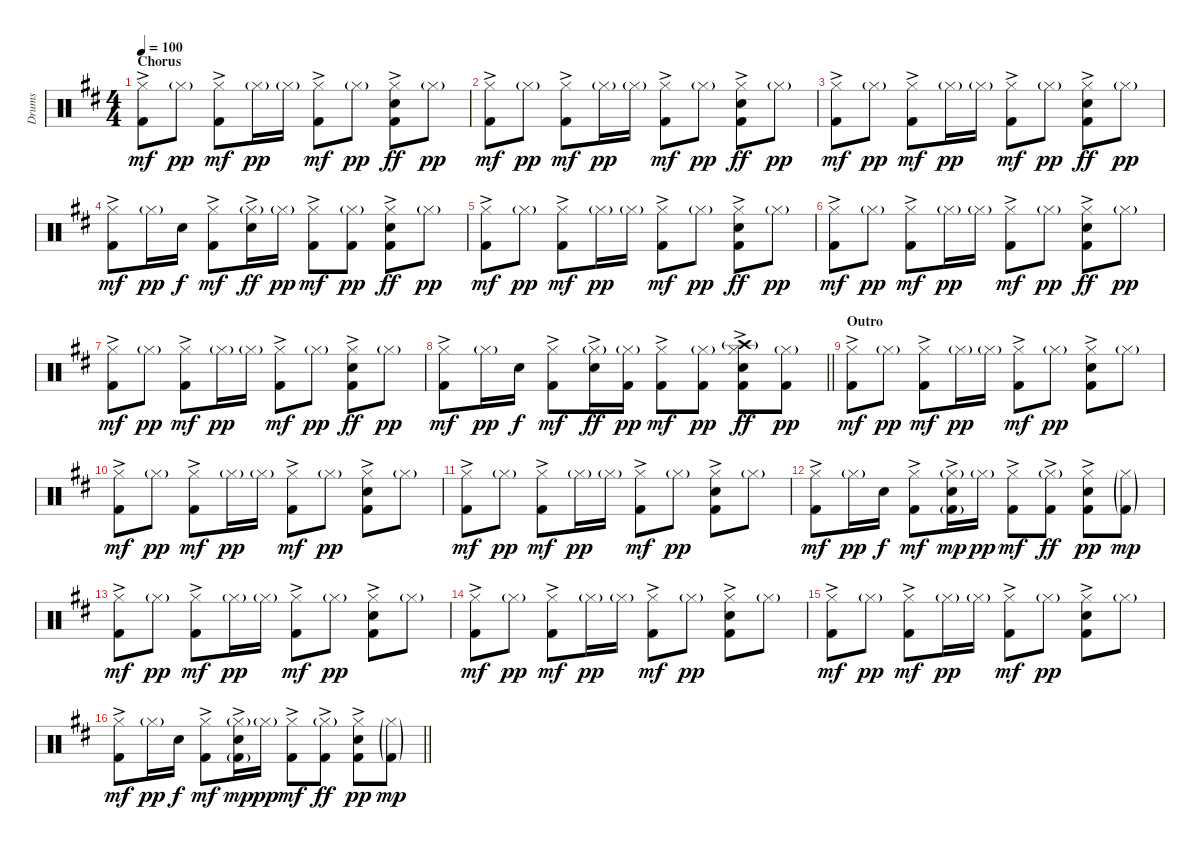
\track ("Drums" "Drums") {instrument percussion}
\staff {score}
\articulation defaults
\ts (4 4)
\section ("" "Chorus")
\tempo 100
\clef neutral
\ks d
("Hi-Hat (closed)" "Kick (hit) 2"{ac}).8{dy mf} "Hi-Hat (closed)"{g}.8{dy pp} ("Hi-Hat (closed)"{ac} "Kick (hit) 2"{ac}).8{dy mf} "Hi-Hat (closed)"{g}.16{dy pp} "Hi-Hat (closed)"{g}.16 ("Hi-Hat (closed)" "Kick (hit) 2"{ac}).8{dy mf} "Hi-Hat (closed)"{g}.8{dy pp} ("Hi-Hat (closed)"{ac} "Snare (hit) 2"{ac} "Kick (hit) 2"{ac}).8{dy ff} "Hi-Hat (closed)"{g}.8{dy pp} |
("Hi-Hat (closed)" "Kick (hit) 2"{ac}).8{dy mf} "Hi-Hat (closed)"{g}.8{dy pp} ("Hi-Hat (closed)"{ac} "Kick (hit) 2"{ac}).8{dy mf} "Hi-Hat (closed)"{g}.16{dy pp} "Hi-Hat (closed)"{g}.16 ("Hi-Hat (closed)" "Kick (hit) 2"{ac}).8{dy mf} "Hi-Hat (closed)"{g}.8{dy pp} ("Hi-Hat (closed)"{ac} "Snare (hit) 2"{ac} "Kick (hit) 2"{ac}).8{dy ff} "Hi-Hat (closed)"{g}.8{dy pp} |
("Hi-Hat (closed)" "Kick (hit) 2"{ac}).8{dy mf} "Hi-Hat (closed)"{g}.8{dy pp} ("Hi-Hat (closed)"{ac} "Kick (hit) 2"{ac}).8{dy mf} "Hi-Hat (closed)"{g}.16{dy pp} "Hi-Hat (closed)"{g}.16 ("Hi-Hat (closed)" "Kick (hit) 2"{ac}).8{dy mf} "Hi-Hat (closed)"{g}.8{dy pp} ("Hi-Hat (closed)"{ac} "Snare (hit) 2"{ac} "Kick (hit) 2"{ac}).8{dy ff} "Hi-Hat (closed)"{g}.8{dy pp} |
("Hi-Hat (closed)" "Kick (hit) 2"{ac}).8{dy mf} "Hi-Hat (closed)"{g}.16{dy pp} "Snare (hit) 2".16{dy f} ("Hi-Hat (closed)"{ac} "Kick (hit) 2"{ac}).8{dy mf} ("Hi-Hat (closed)"{g} "Snare (hit) 2"{ac}).16{dy ff} "Hi-Hat (closed)"{g}.16{dy pp} ("Hi-Hat (closed)" "Kick (hit) 2"{ac}).8{dy mf} ("Hi-Hat (closed)"{g} "Kick (hit) 2").8{dy pp} ("Hi-Hat (closed)"{ac} "Snare (hit) 2"{ac} "Kick (hit) 2"{ac}).8{dy ff} "Hi-Hat (closed)"{g}.8{dy pp} |
("Hi-Hat (closed)" "Kick (hit) 2"{ac}).8{dy mf} "Hi-Hat (closed)"{g}.8{dy pp} ("Hi-Hat (closed)"{ac} "Kick (hit) 2"{ac}).8{dy mf} "Hi-Hat (closed)"{g}.16{dy pp} "Hi-Hat (closed)"{g}.16 ("Hi-Hat (closed)" "Kick (hit) 2"{ac}).8{dy mf} "Hi-Hat (closed)"{g}.8{dy pp} ("Hi-Hat (closed)"{ac} "Snare (hit) 2"{ac} "Kick (hit) 2"{ac}).8{dy ff} "Hi-Hat (closed)"{g}.8{dy pp} |
("Hi-Hat (closed)" "Kick (hit) 2"{ac}).8{dy mf} "Hi-Hat (closed)"{g}.8{dy pp} ("Hi-Hat (closed)"{ac} "Kick (hit) 2"{ac}).8{dy mf} "Hi-Hat (closed)"{g}.16{dy pp} "Hi-Hat (closed)"{g}.16 ("Hi-Hat (closed)" "Kick (hit) 2"{ac}).8{dy mf} "Hi-Hat (closed)"{g}.8{dy pp} ("Hi-Hat (closed)"{ac} "Snare (hit) 2"{ac} "Kick (hit) 2"{ac}).8{dy ff} "Hi-Hat (closed)"{g}.8{dy pp} |
("Hi-Hat (closed)" "Kick (hit) 2"{ac}).8{dy mf} "Hi-Hat (closed)"{g}.8{dy pp} ("Hi-Hat (closed)"{ac} "Kick (hit) 2"{ac}).8{dy mf} "Hi-Hat (closed)"{g}.16{dy pp} "Hi-Hat (closed)"{g}.16 ("Hi-Hat (closed)" "Kick (hit) 2"{ac}).8{dy mf} "Hi-Hat (closed)"{g}.8{dy pp} ("Hi-Hat (closed)"{ac} "Snare (hit) 2"{ac} "Kick (hit) 2"{ac}).8{dy ff} "Hi-Hat (closed)"{g}.8{dy pp} |
\barLineRight lightlight
("Hi-Hat (closed)" "Kick (hit) 2"{ac}).8{dy mf} "Hi-Hat (closed)"{g}.16{dy pp} "Snare (hit) 2".16{dy f} ("Hi-Hat (closed)"{ac} "Kick (hit) 2"{ac}).8{dy mf} ("Hi-Hat (closed)"{g} "Snare (hit) 2"{ac}).16{dy ff} ("Hi-Hat (closed)"{g} "Kick (hit) 2").16{dy pp} ("Hi-Hat (closed)" "Kick (hit) 2"{ac}).8{dy mf} ("Hi-Hat (closed)"{g} "Kick (hit) 2").8{dy pp} ("Hi-Hat (closed)"{ac} "Crash high (hit)"{g} "Snare (hit) 2"{ac} "Kick (hit) 2"{ac}).8{dy ff} ("Hi-Hat (closed)"{g} "Kick (hit) 2").8{dy pp} |
\section ("" "Outro")
("Hi-Hat (closed)" "Kick (hit) 2"{ac}).8{dy mf} "Hi-Hat (closed)"{g}.8{dy pp} ("Hi-Hat (closed)"{ac} "Kick (hit) 2"{ac}).8{dy mf} "Hi-Hat (closed)"{g}.16{dy pp} "Hi-Hat (closed)"{g}.16 ("Hi-Hat (closed)" "Kick (hit) 2"{ac}).8{dy mf} "Hi-Hat (closed)"{g}.8{dy pp} ("Hi-Hat (closed)"{ac} "Snare (hit) 2"{ac} "Kick (hit) 2").8 "Hi-Hat (closed)"{g}.8 |
("Hi-Hat (closed)" "Kick (hit) 2"{ac}).8{dy mf} "Hi-Hat (closed)"{g}.8{dy pp} ("Hi-Hat (closed)"{ac} "Kick (hit) 2"{ac}).8{dy mf} "Hi-Hat (closed)"{g}.16{dy pp} "Hi-Hat (closed)"{g}.16 ("Hi-Hat (closed)" "Kick (hit) 2"{ac}).8{dy mf} "Hi-Hat (closed)"{g}.8{dy pp} ("Hi-Hat (closed)"{ac} "Snare (hit) 2"{ac} "Kick (hit) 2").8 "Hi-Hat (closed)"{g}.8 |
("Hi-Hat (closed)" "Kick (hit) 2"{ac}).8{dy mf} "Hi-Hat (closed)"{g}.8{dy pp} ("Hi-Hat (closed)"{ac} "Kick (hit) 2"{ac}).8{dy mf} "Hi-Hat (closed)"{g}.16{dy pp} "Hi-Hat (closed)"{g}.16 ("Hi-Hat (closed)" "Kick (hit) 2"{ac}).8{dy mf} "Hi-Hat (closed)"{g}.8{dy pp} ("Hi-Hat (closed)"{ac} "Snare (hit) 2"{ac} "Kick (hit) 2").8 "Hi-Hat (closed)"{g}.8 |
("Hi-Hat (closed)" "Kick (hit) 2"{ac}).8{dy mf} "Hi-Hat (closed)"{g}.16{dy pp} "Snare (hit) 2".16{dy f} ("Hi-Hat (closed)"{ac} "Kick (hit) 2"{ac}).8{dy mf} ("Hi-Hat (closed)"{g} "Snare (hit) 2"{ac} "Kick (hit) 2"{g}).16{dy mp} "Hi-Hat (closed)"{g}.16{dy pp} ("Hi-Hat (closed)" "Kick (hit) 2"{ac}).8{dy mf} ("Hi-Hat (closed)"{g} "Kick (hit) 2"{ac}).8{dy ff} ("Hi-Hat (closed)"{ac} "Snare (hit) 2"{ac} "Kick (hit) 2").8{dy pp} ("Hi-Hat (closed)"{g} "Kick (hit) 2"{g}).8{dy mp} |
("Hi-Hat (closed)" "Kick (hit) 2"{ac}).8{dy mf} "Hi-Hat (closed)"{g}.8{dy pp} ("Hi-Hat (closed)"{ac} "Kick (hit) 2"{ac}).8{dy mf} "Hi-Hat (closed)"{g}.16{dy pp} "Hi-Hat (closed)"{g}.16 ("Hi-Hat (closed)" "Kick (hit) 2"{ac}).8{dy mf} "Hi-Hat (closed)"{g}.8{dy pp} ("Hi-Hat (closed)"{ac} "Snare (hit) 2"{ac} "Kick (hit) 2").8 "Hi-Hat (closed)"{g}.8 |
("Hi-Hat (closed)" "Kick (hit) 2"{ac}).8{dy mf} "Hi-Hat (closed)"{g}.8{dy pp} ("Hi-Hat (closed)"{ac} "Kick (hit) 2"{ac}).8{dy mf} "Hi-Hat (closed)"{g}.16{dy pp} "Hi-Hat (closed)"{g}.16 ("Hi-Hat (closed)" "Kick (hit) 2"{ac}).8{dy mf} "Hi-Hat (closed)"{g}.8{dy pp} ("Hi-Hat (closed)"{ac} "Snare (hit) 2"{ac} "Kick (hit) 2").8 "Hi-Hat (closed)"{g}.8 |
("Hi-Hat (closed)" "Kick (hit) 2"{ac}).8{dy mf} "Hi-Hat (closed)"{g}.8{dy pp} ("Hi-Hat (closed)"{ac} "Kick (hit) 2"{ac}).8{dy mf} "Hi-Hat (closed)"{g}.16{dy pp} "Hi-Hat (closed)"{g}.16 ("Hi-Hat (closed)" "Kick (hit) 2"{ac}).8{dy mf} "Hi-Hat (closed)"{g}.8{dy pp} ("Hi-Hat (closed)"{ac} "Snare (hit) 2"{ac} "Kick (hit) 2").8 "Hi-Hat (closed)"{g}.8 |
\barLineRight lightlight
("Hi-Hat (closed)" "Kick (hit) 2"{ac}).8{dy mf} "Hi-Hat (closed)"{g}.16{dy pp} "Snare (hit) 2".16{dy f} ("Hi-Hat (closed)"{ac} "Kick (hit) 2"{ac}).8{dy mf} ("Hi-Hat (closed)"{g} "Snare (hit) 2"{ac} "Kick (hit) 2"{g}).16{dy mp} "Hi-Hat (closed)"{g}.16{dy pp} ("Hi-Hat (closed)" "Kick (hit) 2"{ac}).8{dy mf} ("Hi-Hat (closed)"{g} "Kick (hit) 2"{ac}).8{dy ff} ("Hi-Hat (closed)"{ac} "Snare (hit) 2"{ac} "Kick (hit) 2").8{dy pp} ("Hi-Hat (closed)"{g} "Kick (hit) 2"{g}).8{dy mp}
